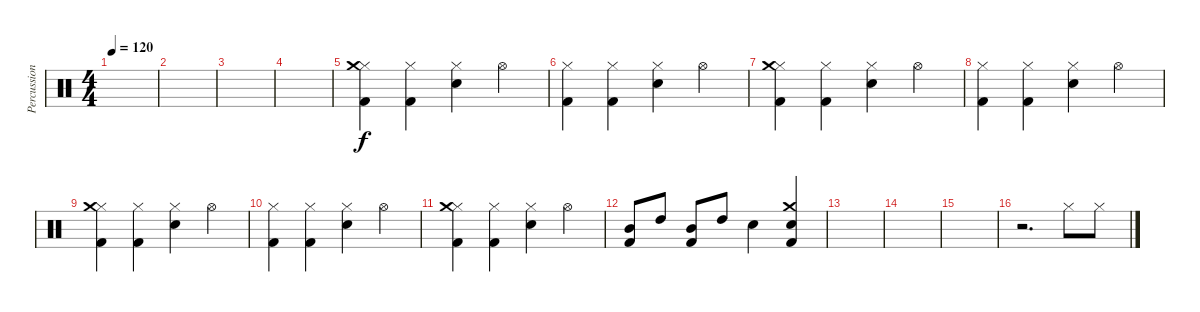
\track ("Percussion" "Percussion") {instrument percussion}
\staff {score}
\articulation defaults
\ts (4 4)
\tempo 120
\clef neutral
\ks c
|
|
|
|
("Hi-Hat (closed)" "Kick (hit) 2" "Crash medium (hit)").4 ("Hi-Hat (closed)" "Kick (hit) 2").4 ("Hi-Hat (closed)" "Snare (hit) 2").4 "Hi-Hat (open)".4 |
("Hi-Hat (closed)" "Kick (hit) 2").4 ("Hi-Hat (closed)" "Kick (hit) 2").4 ("Hi-Hat (closed)" "Snare (hit) 2").4 "Hi-Hat (open)".4 |
("Hi-Hat (closed)" "Kick (hit) 2" "Crash medium (hit)").4 ("Hi-Hat (closed)" "Kick (hit) 2").4 ("Hi-Hat (closed)" "Snare (hit) 2").4 "Hi-Hat (open)".4 |
("Hi-Hat (closed)" "Kick (hit) 2").4 ("Hi-Hat (closed)" "Kick (hit) 2").4 ("Hi-Hat (closed)" "Snare (hit) 2").4 "Hi-Hat (open)".4 |
("Hi-Hat (closed)" "Kick (hit) 2" "Crash medium (hit)").4 ("Hi-Hat (closed)" "Kick (hit) 2").4 ("Hi-Hat (closed)" "Snare (hit) 2").4 "Hi-Hat (open)".4 |
("Hi-Hat (closed)" "Kick (hit) 2").4 ("Hi-Hat (closed)" "Kick (hit) 2").4 ("Hi-Hat (closed)" "Snare (hit) 2").4 "Hi-Hat (open)".4 |
("Hi-Hat (closed)" "Kick (hit) 2" "Crash medium (hit)").4 ("Hi-Hat (closed)" "Kick (hit) 2").4 ("Hi-Hat (closed)" "Snare (hit) 2").4 "Hi-Hat (open)".4 |
("Mid Tom (hit)" "Kick (hit) 2").8 "High Tom (hit)".8 ("Mid Tom (hit)" "Kick (hit) 2").8 "High Tom (hit)".8 "Snare (hit) 2".4 ("Snare (hit) 2" "Kick (hit) 2" "Crash medium (hit)").4 |
|
|
|
r.2{d} "Hi-Hat (closed)".8 "Hi-Hat (closed)".8
